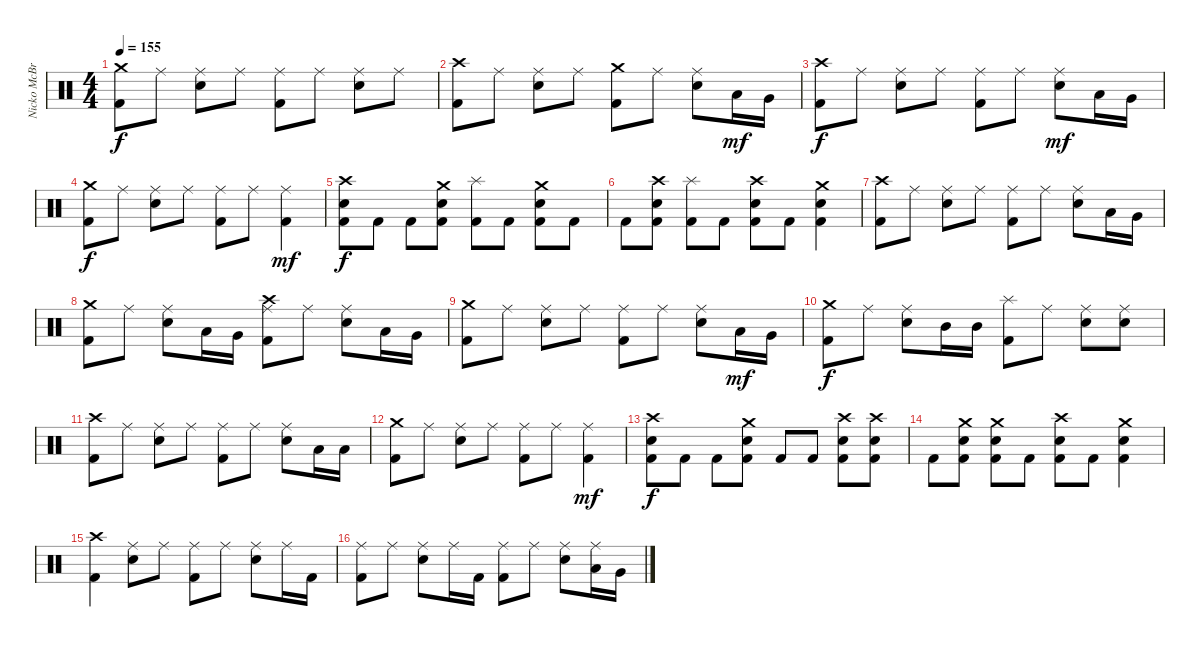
\track ("Nicko McBrain" "Nicko McBr") {instrument percussion}
\staff {score}
\articulation defaults
\ts (4 4)
\tempo 155
\clef neutral
\ks c
("Crash medium (hit)" "Kick (hit) 2").8{dy f} "Ride (middle)".8 ("Ride (middle)" "Snare (hit) 2").8 "Ride (middle)".8 ("Ride (middle)" "Kick (hit) 2").8 "Ride (middle)".8 ("Ride (middle)" "Snare (hit) 2").8 "Ride (middle)".8 |
("Crash high (hit)" "Kick (hit) 2").8 "Ride (middle)".8 ("Ride (middle)" "Snare (hit) 2").8 "Ride (middle)".8 ("Crash medium (hit)" "Kick (hit) 2").8 "Ride (middle)".8 ("Ride (middle)" "Snare (hit) 2").8 "Low Tom (hit)".16{dy mf} "Very Low Tom (hit)".16 |
("Crash high (hit)" "Kick (hit) 2").8{dy f} "Ride (middle)".8 ("Ride (middle)" "Snare (hit) 2").8 "Ride (middle)".8 ("Ride (middle)" "Kick (hit) 2").8 "Ride (middle)".8 ("Ride (middle)" "Snare (hit) 2").8{dy mf} "Low Tom (hit)".16 "Very Low Tom (hit)".16 |
("Crash medium (hit)" "Kick (hit) 2").8{dy f} "Ride (middle)".8 ("Ride (middle)" "Snare (hit) 2").8 "Ride (middle)".8 ("Ride (middle)" "Kick (hit) 2").8 "Ride (middle)".8 ("Ride (middle)" "Kick (hit) 2").4{dy mf} |
("Snare (hit) 2" "Crash high (hit)" "Kick (hit) 2").8{dy f} "Kick (hit) 2".8 "Kick (hit) 2".8 ("Snare (hit) 2" "Crash medium (hit)" "Kick (hit) 2").8 ("Splash (hit)" "Kick (hit) 2").8 "Kick (hit) 2".8 ("Snare (hit) 2" "Crash medium (hit)" "Kick (hit) 2").8 "Kick (hit) 2".8 |
"Kick (hit) 2".8 ("Snare (hit) 2" "Crash high (hit)" "Kick (hit) 2").8 ("Splash (hit)" "Kick (hit) 2").8 "Kick (hit) 2".8 ("Snare (hit) 2" "Crash high (hit)" "Kick (hit) 2").8 "Kick (hit) 2".8 ("Snare (hit) 2" "Crash medium (hit)" "Kick (hit) 2").4 |
("Crash high (hit)" "Kick (hit) 2").8 "Ride (middle)".8 ("Ride (middle)" "Snare (hit) 2").8 "Ride (middle)".8 ("Ride (middle)" "Kick (hit) 2").8 "Ride (middle)".8 ("Ride (middle)" "Snare (hit) 2").8 "Low Tom (hit)".16 "Very Low Tom (hit)".16 |
("Crash medium (hit)" "Kick (hit) 2").8 "Ride (middle)".8 ("Ride (middle)" "Snare (hit) 2").8 "Low Tom (hit)".16 "Very Low Tom (hit)".16 ("Ride (middle)" "Crash high (hit)" "Kick (hit) 2").8 "Ride (middle)".8 ("Ride (middle)" "Snare (hit) 2").8 "Low Tom (hit)".16 "Very Low Tom (hit)".16 |
("Crash medium (hit)" "Kick (hit) 2").8 "Ride (middle)".8 ("Ride (middle)" "Snare (hit) 2").8 "Ride (middle)".8 ("Ride (middle)" "Kick (hit) 2").8 "Ride (middle)".8 ("Ride (middle)" "Snare (hit) 2").8 "Low Tom (hit)".16{dy mf} "Very Low Tom (hit)".16 |
("Crash medium (hit)" "Kick (hit) 2").8{dy f} "Ride (middle)".8 ("Ride (middle)" "Snare (hit) 2").8 "Mid Tom (hit)".16 "Mid Tom (hit)".16 ("Splash (hit)" "Kick (hit) 2").8 "Ride (middle)".8 ("Ride (middle)" "Snare (hit) 2").8 ("Ride (middle)" "Snare (hit) 2").8 |
("Crash high (hit)" "Kick (hit) 2").8 "Ride (middle)".8 ("Ride (middle)" "Snare (hit) 2").8 "Ride (middle)".8 ("Ride (middle)" "Kick (hit) 2").8 "Ride (middle)".8 ("Ride (middle)" "Snare (hit) 2").8 "Low Tom (hit)".16 "Low Tom (hit)".16 |
("Crash medium (hit)" "Kick (hit) 2").8 "Ride (middle)".8 ("Ride (middle)" "Snare (hit) 2").8 "Ride (middle)".8 ("Ride (middle)" "Kick (hit) 2").8 "Ride (middle)".8 ("Ride (middle)" "Kick (hit) 2").4{dy mf} |
("Snare (hit) 2" "Crash high (hit)" "Kick (hit) 2").8{dy f} "Kick (hit) 2".8 "Kick (hit) 2".8 ("Snare (hit) 2" "Crash medium (hit)" "Kick (hit) 2").8 "Kick (hit) 2".8 "Kick (hit) 2".8 ("Snare (hit) 2" "Crash high (hit)" "Kick (hit) 2").8 ("Snare (hit) 2" "Crash high (hit)" "Kick (hit) 2").8 |
"Kick (hit) 2".8 ("Snare (hit) 2" "Crash medium (hit)" "Kick (hit) 2").8 ("Snare (hit) 2" "Crash medium (hit)" "Kick (hit) 2").8 "Kick (hit) 2".8 ("Snare (hit) 2" "Crash high (hit)" "Kick (hit) 2").8 "Kick (hit) 2".8 ("Snare (hit) 2" "Crash medium (hit)" "Kick (hit) 2").4 |
("Crash high (hit)" "Kick (hit) 2").4 ("Ride (middle)" "Snare (hit) 2").8 "Ride (middle)".8 ("Ride (middle)" "Kick (hit) 2").8 "Ride (middle)".8 ("Ride (middle)" "Snare (hit) 2").8 "Ride (middle)".16 "Kick (hit) 2".16 |
("Ride (middle)" "Kick (hit) 2").8 "Ride (middle)".8 ("Ride (middle)" "Snare (hit) 2").8 "Ride (middle)".16 "Kick (hit) 2".16 ("Ride (middle)" "Kick (hit) 2").8 "Ride (middle)".8 ("Ride (middle)" "Snare (hit) 2").8 ("Ride (middle)" "Low Tom (hit)").16 "Very Low Tom (hit)".16
